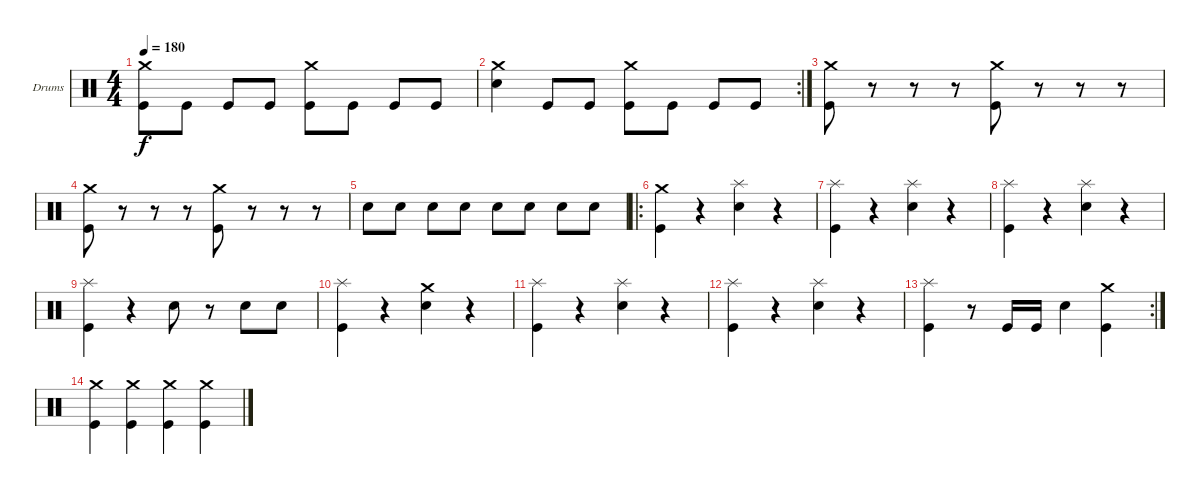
\bracketExtendMode groupsimilarinstruments
\firstSystemTrackNameOrientation horizontal
\otherSystemsTrackNameOrientation horizontal
\track ("Drumkit" "Drums") {instrument percussion}
\staff {score}
\articulation defaults
\ts (4 4)
\tempo 180
\clef neutral
\ks c
("Crash medium (hit)" "Kick (hit)").8{dy f} "Kick (hit)".8 "Kick (hit)".8 "Kick (hit)".8 ("Crash medium (hit)" "Kick (hit)").8 "Kick (hit)".8 "Kick (hit)".8 "Kick (hit)".8 |
\rc 2
("Crash medium (hit)" "Snare (hit) 2").4 "Kick (hit)".8 "Kick (hit)".8 ("Crash medium (hit)" "Kick (hit)").8 "Kick (hit)".8 "Kick (hit)".8 "Kick (hit)".8 |
("Crash medium (hit)" "Kick (hit)").8 r.8 r.8 r.8 ("Crash medium (hit)" "Kick (hit)").8 r.8 r.8 r.8 |
("Crash medium (hit)" "Kick (hit)").8 r.8 r.8 r.8 ("Crash medium (hit)" "Kick (hit)").8 r.8 r.8 r.8 |
"Snare (hit) 2".8 "Snare (hit) 2".8 "Snare (hit) 2".8 "Snare (hit) 2".8 "Snare (hit) 2".8 "Snare (hit) 2".8 "Snare (hit) 2".8 "Snare (hit) 2".8 |
\ro
("Crash medium (hit)" "Kick (hit)").4 r.4 ("Splash (hit)" "Snare (hit) 2").4 r.4 |
("Splash (hit)" "Kick (hit)").4 r.4 ("Splash (hit)" "Snare (hit) 2").4 r.4 |
("Splash (hit)" "Kick (hit)").4 r.4 ("Splash (hit)" "Snare (hit) 2").4 r.4 |
("Splash (hit)" "Kick (hit)").4 r.4 "Snare (hit) 2".8 r.8 "Snare (hit) 2".8 "Snare (hit) 2".8 |
("Splash (hit)" "Kick (hit)").4 r.4 ("Crash medium (hit)" "Snare (hit) 2").4 r.4 |
("Splash (hit)" "Kick (hit)").4 r.4 ("Splash (hit)" "Snare (hit) 2").4 r.4 |
("Splash (hit)" "Kick (hit)").4 r.4 ("Splash (hit)" "Snare (hit) 2").4 r.4 |
\rc 2
("Splash (hit)" "Kick (hit)").4 r.8 "Kick (hit)".16 "Kick (hit)".16 "Snare (hit) 2".4 ("Crash medium (hit)" "Kick (hit)").4 |
("Crash medium (hit)" "Kick (hit)").4 ("Crash medium (hit)" "Kick (hit)").4 ("Crash medium (hit)" "Kick (hit)").4 ("Crash medium (hit)" "Kick (hit)").4
